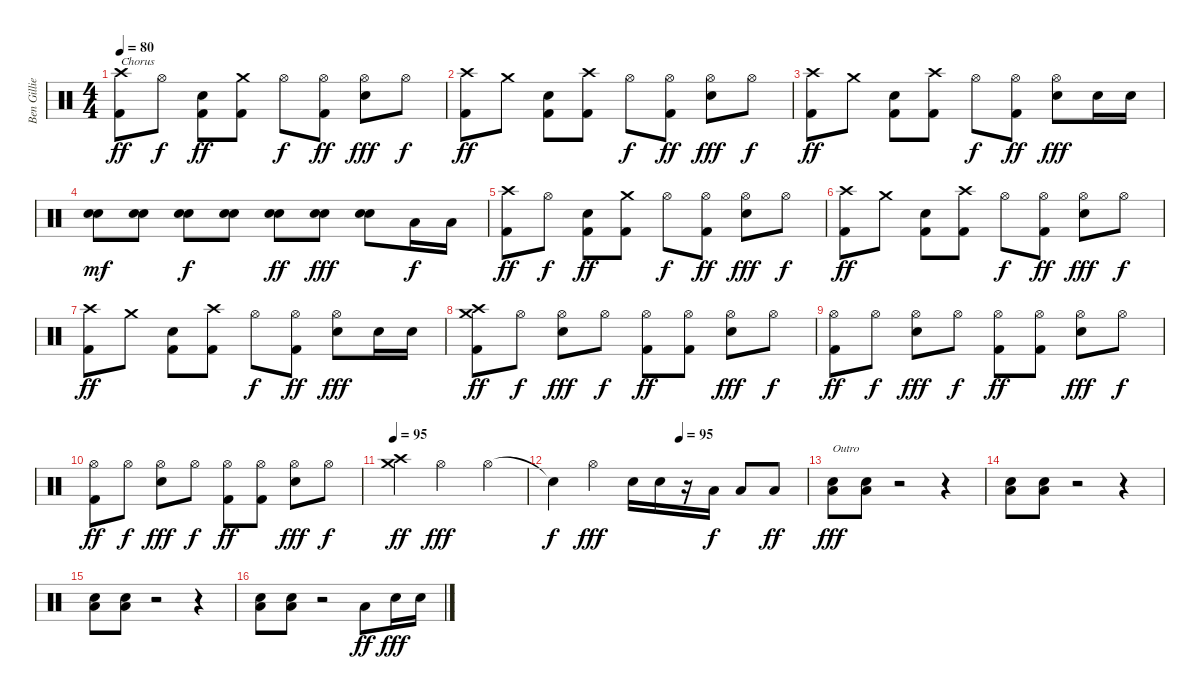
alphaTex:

\track ("Ben Gillies" "Ben Gillie") {instrument percussion}
\staff {score}
\articulation defaults
\ts (4 4)
\tempo 80
\clef neutral
\ks c
("Crash high (hit)" "Kick (hit) 2").8{txt "Chorus" dy ff} "Hi-Hat (open)".8{dy f} ("Electric Snare (hit)" "Kick (hit) 2").8{dy ff} ("Crash medium (hit)" "Kick (hit) 2").8 "Hi-Hat (open)".8{dy f} ("Hi-Hat (open)" "Kick (hit) 2").8{dy ff} ("Hi-Hat (open)" "Electric Snare (hit)").8{dy fff} "Hi-Hat (open)".8{dy f} |
("Crash high (hit)" "Kick (hit) 2").8{dy ff} "Crash medium (hit)".8 ("Electric Snare (hit)" "Kick (hit) 2").8 ("Crash high (hit)" "Kick (hit) 2").8 "Hi-Hat (open)".8{dy f} ("Hi-Hat (open)" "Kick (hit) 2").8{dy ff} ("Hi-Hat (open)" "Electric Snare (hit)").8{dy fff} "Hi-Hat (open)".8{dy f} |
("Crash high (hit)" "Kick (hit) 2").8{dy ff} "Crash medium (hit)".8 ("Electric Snare (hit)" "Kick (hit) 2").8 ("Crash high (hit)" "Kick (hit) 2").8 "Hi-Hat (open)".8{dy f} ("Hi-Hat (open)" "Kick (hit) 2").8{dy ff} ("Hi-Hat (open)" "Electric Snare (hit)").8{dy fff} "Electric Snare (hit)".16 "Electric Snare (hit)".16 |
("Electric Snare (hit)" "Electric Snare (hit)").8{dy mf} ("Electric Snare (hit)" "Electric Snare (hit)").8 ("Electric Snare (hit)" "Electric Snare (hit)").8{dy f} ("Electric Snare (hit)" "Electric Snare (hit)").8 ("Electric Snare (hit)" "Electric Snare (hit)").8{dy ff} ("Electric Snare (hit)" "Electric Snare (hit)").8{dy fff} ("Electric Snare (hit)" "Electric Snare (hit)").8 "Low Floor Tom (hit)".16{dy f} "Low Floor Tom (hit)".16 |
("Crash high (hit)" "Kick (hit) 2").8{dy ff} "Hi-Hat (open)".8{dy f} ("Electric Snare (hit)" "Kick (hit) 2").8{dy ff} ("Crash medium (hit)" "Kick (hit) 2").8 "Hi-Hat (open)".8{dy f} ("Hi-Hat (open)" "Kick (hit) 2").8{dy ff} ("Hi-Hat (open)" "Electric Snare (hit)").8{dy fff} "Hi-Hat (open)".8{dy f} |
("Crash high (hit)" "Kick (hit) 2").8{dy ff} "Crash medium (hit)".8 ("Electric Snare (hit)" "Kick (hit) 2").8 ("Crash high (hit)" "Kick (hit) 2").8 "Hi-Hat (open)".8{dy f} ("Hi-Hat (open)" "Kick (hit) 2").8{dy ff} ("Hi-Hat (open)" "Electric Snare (hit)").8{dy fff} "Hi-Hat (open)".8{dy f} |
("Crash high (hit)" "Kick (hit) 2").8{dy ff} "Crash medium (hit)".8 ("Electric Snare (hit)" "Kick (hit) 2").8 ("Crash high (hit)" "Kick (hit) 2").8 "Hi-Hat (open)".8{dy f} ("Hi-Hat (open)" "Kick (hit) 2").8{dy ff} ("Hi-Hat (open)" "Electric Snare (hit)").8{dy fff} "Electric Snare (hit)".16 "Electric Snare (hit)".16 |
("Crash high (hit)" "Crash medium (hit)" "Kick (hit) 2").8{dy ff} "Hi-Hat (open)".8{dy f} ("Hi-Hat (open)" "Electric Snare (hit)").8{dy fff} "Hi-Hat (open)".8{dy f} ("Hi-Hat (open)" "Kick (hit) 2").8{dy ff} ("Hi-Hat (open)" "Kick (hit) 2").8 ("Hi-Hat (open)" "Electric Snare (hit)").8{dy fff} "Hi-Hat (open)".8{dy f} |
("Hi-Hat (open)" "Kick (hit) 2").8{dy ff} "Hi-Hat (open)".8{dy f} ("Hi-Hat (open)" "Electric Snare (hit)").8{dy fff} "Hi-Hat (open)".8{dy f} ("Hi-Hat (open)" "Kick (hit) 2").8{dy ff} ("Hi-Hat (open)" "Kick (hit) 2").8 ("Hi-Hat (open)" "Electric Snare (hit)").8{dy fff} "Hi-Hat (open)".8{dy f} |
("Hi-Hat (open)" "Kick (hit) 2").8{dy ff} "Hi-Hat (open)".8{dy f} ("Hi-Hat (open)" "Electric Snare (hit)").8{dy fff} "Hi-Hat (open)".8{dy f} ("Hi-Hat (open)" "Kick (hit) 2").8{dy ff} ("Hi-Hat (open)" "Kick (hit) 2").8 ("Hi-Hat (open)" "Electric Snare (hit)").8{dy fff} "Hi-Hat (open)".8{dy f} |
\tempo 95
("Crash high (hit)" "Crash medium (hit)").4{dy ff} "Hi-Hat (open)".2{dy fff} "Hi-Hat (open)".4 |
\tempo (95 0.5)
"Snare (hit)"{t}.4{dy f} "Hi-Hat (open)".4{dy fff} "Electric Snare (hit)".16 "Electric Snare (hit)".16 r.16 "Low Tom (hit)".16{dy f} "Low Tom (hit)".8 "Low Floor Tom (hit)".8{dy ff} |
("Low Floor Tom (hit)" "Electric Snare (hit)").8{txt "Outro" dy fff} ("Low Floor Tom (hit)" "Electric Snare (hit)").8 r.2 r.4 |
("Low Floor Tom (hit)" "Electric Snare (hit)").8 ("Low Floor Tom (hit)" "Electric Snare (hit)").8 r.2 r.4 |
("Low Floor Tom (hit)" "Electric Snare (hit)").8 ("Low Floor Tom (hit)" "Electric Snare (hit)").8 r.2 r.4 |
("Low Floor Tom (hit)" "Electric Snare (hit)").8 ("Low Floor Tom (hit)" "Electric Snare (hit)").8 r.2 "Low Floor Tom (hit)".8{dy ff} "Electric Snare (hit)".16{dy fff} "Electric Snare (hit)".16
